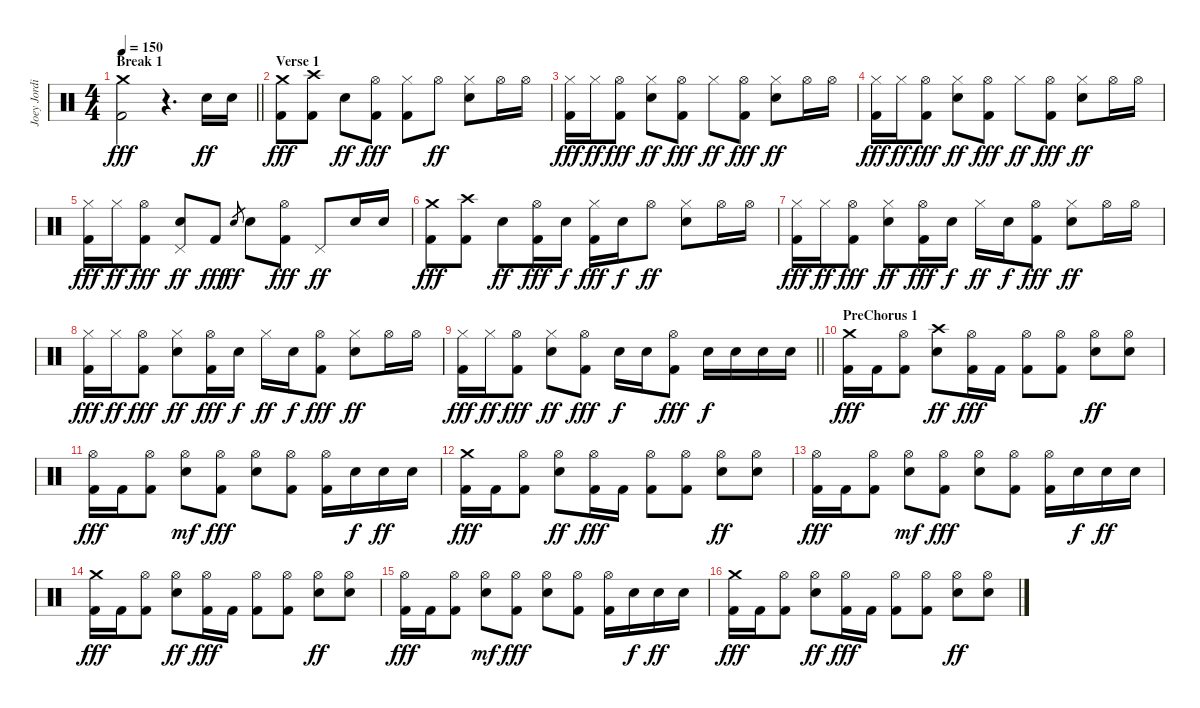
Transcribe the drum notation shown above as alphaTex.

\track ("Joey Jordison" "Joey Jordi") {instrument percussion}
\staff {score}
\articulation defaults
\ts (4 4)
\section ("" "Break 1")
\tempo 150
\clef neutral
\barLineRight lightlight
\ks c
("Crash medium (hit)" "Kick (hit) 2").2{dy fff} r.4{d} "Electric Snare (hit)".16{dy ff} "Electric Snare (hit)".16 |
\section ("" "Verse 1")
("Crash medium (hit)" "Kick (hit) 2").8{dy fff} ("Crash high (hit)" "Kick (hit) 2").8 "Electric Snare (hit)".8{dy ff} ("Hi-Hat (open)" "Kick (hit) 2").8{dy fff} ("Hi-Hat (closed)" "Kick (hit) 2").8 "Hi-Hat (open)".8{dy ff} ("Hi-Hat (closed)" "Electric Snare (hit)").8 "Hi-Hat (open)".16 "Hi-Hat (open)".16 |
("Hi-Hat (closed)" "Kick (hit) 2").16{dy fff} "Hi-Hat (closed)".16{dy ff} ("Hi-Hat (open)" "Kick (hit) 2").8{dy fff} ("Hi-Hat (closed)" "Electric Snare (hit)").8{dy ff} ("Hi-Hat (open)" "Kick (hit) 2").8{dy fff} "Hi-Hat (closed)".8{dy ff} ("Hi-Hat (open)" "Kick (hit) 2").8{dy fff} ("Hi-Hat (closed)" "Electric Snare (hit)").8{dy ff} "Hi-Hat (open)".16 "Hi-Hat (open)".16 |
("Hi-Hat (closed)" "Kick (hit) 2").16{dy fff} "Hi-Hat (closed)".16{dy ff} ("Hi-Hat (open)" "Kick (hit) 2").8{dy fff} ("Hi-Hat (closed)" "Electric Snare (hit)").8{dy ff} ("Hi-Hat (open)" "Kick (hit) 2").8{dy fff} "Hi-Hat (closed)".8{dy ff} ("Hi-Hat (open)" "Kick (hit) 2").8{dy fff} ("Hi-Hat (closed)" "Electric Snare (hit)").8{dy ff} "Hi-Hat (open)".16 "Hi-Hat (open)".16 |
("Hi-Hat (closed)" "Kick (hit) 2").16{dy fff} "Hi-Hat (closed)".16{dy ff} ("Hi-Hat (open)" "Kick (hit) 2").8{dy fff} ("Electric Snare (hit)" "Pedal Hi-Hat (hit)").8{dy ff} "Kick (hit) 2".8{dy fff} "Electric Snare (hit)".8{gr dy ff} "Electric Snare (hit)".8 ("Hi-Hat (open)" "Kick (hit) 2").8{dy fff} "Pedal Hi-Hat (hit)".8{dy ff} "Electric Snare (hit)".16 "Electric Snare (hit)".16 |
("Crash medium (hit)" "Kick (hit) 2").8{dy fff} ("Crash high (hit)" "Kick (hit) 2").8 "Electric Snare (hit)".8{dy ff} ("Hi-Hat (open)" "Kick (hit) 2").16{dy fff} "Electric Snare (hit)".16{dy f} ("Hi-Hat (closed)" "Kick (hit) 2").16{dy fff} "Electric Snare (hit)".16{dy f} "Hi-Hat (open)".8{dy ff} ("Hi-Hat (closed)" "Electric Snare (hit)").8 "Hi-Hat (open)".16 "Hi-Hat (open)".16 |
("Hi-Hat (closed)" "Kick (hit) 2").16{dy fff} "Hi-Hat (closed)".16{dy ff} ("Hi-Hat (open)" "Kick (hit) 2").8{dy fff} ("Hi-Hat (closed)" "Electric Snare (hit)").8{dy ff} ("Hi-Hat (open)" "Kick (hit) 2").16{dy fff} "Electric Snare (hit)".16{dy f} "Hi-Hat (closed)".16{dy ff} "Electric Snare (hit)".16{dy f} ("Hi-Hat (open)" "Kick (hit) 2").8{dy fff} ("Hi-Hat (closed)" "Electric Snare (hit)").8{dy ff} "Hi-Hat (open)".16 "Hi-Hat (open)".16 |
("Hi-Hat (closed)" "Kick (hit) 2").16{dy fff} "Hi-Hat (closed)".16{dy ff} ("Hi-Hat (open)" "Kick (hit) 2").8{dy fff} ("Hi-Hat (closed)" "Electric Snare (hit)").8{dy ff} ("Hi-Hat (open)" "Kick (hit) 2").16{dy fff} "Electric Snare (hit)".16{dy f} "Hi-Hat (closed)".16{dy ff} "Electric Snare (hit)".16{dy f} ("Hi-Hat (open)" "Kick (hit) 2").8{dy fff} ("Hi-Hat (closed)" "Electric Snare (hit)").8{dy ff} "Hi-Hat (open)".16 "Hi-Hat (open)".16 |
\barLineRight lightlight
("Hi-Hat (closed)" "Kick (hit) 2").16{dy fff} "Hi-Hat (closed)".16{dy ff} ("Hi-Hat (open)" "Kick (hit) 2").8{dy fff} ("Hi-Hat (closed)" "Electric Snare (hit)").8{dy ff} ("Hi-Hat (open)" "Kick (hit) 2").8{dy fff} "Electric Snare (hit)".16{dy f} "Electric Snare (hit)".16 ("Hi-Hat (open)" "Kick (hit) 2").8{dy fff} "Electric Snare (hit)".16{dy f} "Electric Snare (hit)".16 "Electric Snare (hit)".16 "Electric Snare (hit)".16 |
\section ("" "PreChorus 1")
("Crash medium (hit)" "Kick (hit) 2").16{dy fff} "Kick (hit) 2".16 ("Hi-Hat (open)" "Kick (hit) 2").8 ("Crash high (hit)" "Electric Snare (hit)").8{dy ff} ("Hi-Hat (open)" "Kick (hit) 2").16{dy fff} "Kick (hit) 2".16 ("Hi-Hat (open)" "Kick (hit) 2").8 ("Hi-Hat (open)" "Kick (hit) 2").8 ("Hi-Hat (open)" "Electric Snare (hit)").8{dy ff} ("Hi-Hat (open)" "Electric Snare (hit)").8 |
("Hi-Hat (open)" "Kick (hit) 2").16{dy fff} "Kick (hit) 2".16 ("Hi-Hat (open)" "Kick (hit) 2").8 ("Hi-Hat (open)" "Electric Snare (hit)").8{dy mf} ("Hi-Hat (open)" "Kick (hit) 2").8{dy fff} ("Hi-Hat (open)" "Electric Snare (hit)").8 ("Hi-Hat (open)" "Kick (hit) 2").8 ("Hi-Hat (open)" "Kick (hit) 2").16 "Electric Snare (hit)".16{dy f} "Electric Snare (hit)".16{dy ff} "Electric Snare (hit)".16 |
("Crash medium (hit)" "Kick (hit) 2").16{dy fff} "Kick (hit) 2".16 ("Hi-Hat (open)" "Kick (hit) 2").8 ("Hi-Hat (open)" "Electric Snare (hit)").8{dy ff} ("Hi-Hat (open)" "Kick (hit) 2").16{dy fff} "Kick (hit) 2".16 ("Hi-Hat (open)" "Kick (hit) 2").8 ("Hi-Hat (open)" "Kick (hit) 2").8 ("Hi-Hat (open)" "Electric Snare (hit)").8{dy ff} ("Hi-Hat (open)" "Electric Snare (hit)").8 |
("Hi-Hat (open)" "Kick (hit) 2").16{dy fff} "Kick (hit) 2".16 ("Hi-Hat (open)" "Kick (hit) 2").8 ("Hi-Hat (open)" "Electric Snare (hit)").8{dy mf} ("Hi-Hat (open)" "Kick (hit) 2").8{dy fff} ("Hi-Hat (open)" "Electric Snare (hit)").8 ("Hi-Hat (open)" "Kick (hit) 2").8 ("Hi-Hat (open)" "Kick (hit) 2").16 "Electric Snare (hit)".16{dy f} "Electric Snare (hit)".16{dy ff} "Electric Snare (hit)".16 |
("Crash medium (hit)" "Kick (hit) 2").16{dy fff} "Kick (hit) 2".16 ("Hi-Hat (open)" "Kick (hit) 2").8 ("Hi-Hat (open)" "Electric Snare (hit)").8{dy ff} ("Hi-Hat (open)" "Kick (hit) 2").16{dy fff} "Kick (hit) 2".16 ("Hi-Hat (open)" "Kick (hit) 2").8 ("Hi-Hat (open)" "Kick (hit) 2").8 ("Hi-Hat (open)" "Electric Snare (hit)").8{dy ff} ("Hi-Hat (open)" "Electric Snare (hit)").8 |
("Hi-Hat (open)" "Kick (hit) 2").16{dy fff} "Kick (hit) 2".16 ("Hi-Hat (open)" "Kick (hit) 2").8 ("Hi-Hat (open)" "Electric Snare (hit)").8{dy mf} ("Hi-Hat (open)" "Kick (hit) 2").8{dy fff} ("Hi-Hat (open)" "Electric Snare (hit)").8 ("Hi-Hat (open)" "Kick (hit) 2").8 ("Hi-Hat (open)" "Kick (hit) 2").16 "Electric Snare (hit)".16{dy f} "Electric Snare (hit)".16{dy ff} "Electric Snare (hit)".16 |
("Crash medium (hit)" "Kick (hit) 2").16{dy fff} "Kick (hit) 2".16 ("Hi-Hat (open)" "Kick (hit) 2").8 ("Hi-Hat (open)" "Electric Snare (hit)").8{dy ff} ("Hi-Hat (open)" "Kick (hit) 2").16{dy fff} "Kick (hit) 2".16 ("Hi-Hat (open)" "Kick (hit) 2").8 ("Hi-Hat (open)" "Kick (hit) 2").8 ("Hi-Hat (open)" "Electric Snare (hit)").8{dy ff} ("Hi-Hat (open)" "Electric Snare (hit)").8
